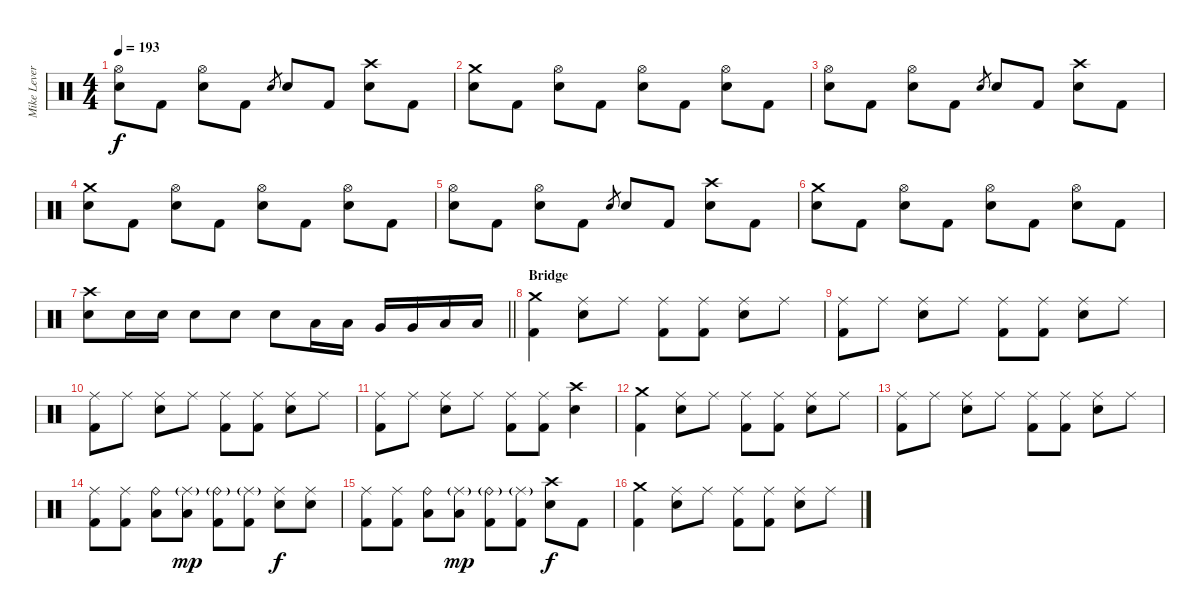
\track ("Mike Leverence - Drums" "Mike Lever") {instrument percussion}
\staff {score}
\articulation defaults
\ts (4 4)
\tempo 193
\clef neutral
\ks c
("Hi-Hat (open)" "Electric Snare (hit)").8{dy f} "Kick (hit) 2".8 ("Hi-Hat (open)" "Electric Snare (hit)").8 "Kick (hit) 2".8 "Electric Snare (hit)".8{gr} "Electric Snare (hit)".8 "Kick (hit) 2".8 ("Crash high (hit)" "Electric Snare (hit)").8 "Kick (hit) 2".8 |
("Crash medium (hit)" "Electric Snare (hit)").8 "Kick (hit) 2".8 ("Hi-Hat (open)" "Electric Snare (hit)").8 "Kick (hit) 2".8 ("Hi-Hat (open)" "Electric Snare (hit)").8 "Kick (hit) 2".8 ("Hi-Hat (open)" "Electric Snare (hit)").8 "Kick (hit) 2".8 |
("Hi-Hat (open)" "Electric Snare (hit)").8 "Kick (hit) 2".8 ("Hi-Hat (open)" "Electric Snare (hit)").8 "Kick (hit) 2".8 "Electric Snare (hit)".8{gr} "Electric Snare (hit)".8 "Kick (hit) 2".8 ("Crash high (hit)" "Electric Snare (hit)").8 "Kick (hit) 2".8 |
("Crash medium (hit)" "Electric Snare (hit)").8 "Kick (hit) 2".8 ("Hi-Hat (open)" "Electric Snare (hit)").8 "Kick (hit) 2".8 ("Hi-Hat (open)" "Electric Snare (hit)").8 "Kick (hit) 2".8 ("Hi-Hat (open)" "Electric Snare (hit)").8 "Kick (hit) 2".8 |
("Hi-Hat (open)" "Electric Snare (hit)").8 "Kick (hit) 2".8 ("Hi-Hat (open)" "Electric Snare (hit)").8 "Kick (hit) 2".8 "Electric Snare (hit)".8{gr} "Electric Snare (hit)".8 "Kick (hit) 2".8 ("Crash high (hit)" "Electric Snare (hit)").8 "Kick (hit) 2".8 |
("Crash medium (hit)" "Electric Snare (hit)").8 "Kick (hit) 2".8 ("Hi-Hat (open)" "Electric Snare (hit)").8 "Kick (hit) 2".8 ("Hi-Hat (open)" "Electric Snare (hit)").8 "Kick (hit) 2".8 ("Hi-Hat (open)" "Electric Snare (hit)").8 "Kick (hit) 2".8 |
\barLineRight lightlight
("Crash high (hit)" "Electric Snare (hit)").8 "Electric Snare (hit)".16 "Electric Snare (hit)".16 "Electric Snare (hit)".8 "Electric Snare (hit)".8 "Electric Snare (hit)".8 "Low Tom (hit)".16 "Low Tom (hit)".16 "Very Low Tom (hit)".16 "Very Low Tom (hit)".16 "Low Floor Tom (hit)".16 "Low Floor Tom (hit)".16 |
\section ("" "Bridge")
("Crash medium (hit)" "Kick (hit) 2").4 ("Ride (middle)" "Electric Snare (hit)").8 "Ride (middle)".8 ("Ride (middle)" "Kick (hit) 2").8 ("Ride (middle)" "Kick (hit) 2").8 ("Ride (middle)" "Electric Snare (hit)").8 "Ride (middle)".8 |
("Ride (middle)" "Kick (hit) 2").8 "Ride (middle)".8 ("Ride (middle)" "Electric Snare (hit)").8 "Ride (middle)".8 ("Ride (middle)" "Kick (hit) 2").8 ("Ride (middle)" "Kick (hit) 2").8 ("Ride (middle)" "Electric Snare (hit)").8 "Ride (middle)".8 |
("Ride (middle)" "Kick (hit) 2").8 "Ride (middle)".8 ("Ride (middle)" "Electric Snare (hit)").8 "Ride (middle)".8 ("Ride (middle)" "Kick (hit) 2").8 ("Ride (middle)" "Kick (hit) 2").8 ("Ride (middle)" "Electric Snare (hit)").8 "Ride (middle)".8 |
("Ride (middle)" "Kick (hit) 2").8 "Ride (middle)".8 ("Ride (middle)" "Electric Snare (hit)").8 "Ride (middle)".8 ("Ride (middle)" "Kick (hit) 2").8 ("Ride (middle)" "Kick (hit) 2").8 ("Crash high (hit)" "Electric Snare (hit)").4 |
("Crash medium (hit)" "Kick (hit) 2").4 ("Ride (middle)" "Electric Snare (hit)").8 "Ride (middle)".8 ("Ride (middle)" "Kick (hit) 2").8 ("Ride (middle)" "Kick (hit) 2").8 ("Ride (middle)" "Electric Snare (hit)").8 "Ride (middle)".8 |
("Ride (middle)" "Kick (hit) 2").8 "Ride (middle)".8 ("Ride (middle)" "Electric Snare (hit)").8 "Ride (middle)".8 ("Ride (middle)" "Kick (hit) 2").8 ("Ride (middle)" "Kick (hit) 2").8 ("Ride (middle)" "Electric Snare (hit)").8 "Ride (middle)".8 |
("Ride (middle)" "Kick (hit) 2").8 ("Ride (middle)" "Kick (hit) 2").8 ("Ride (bell)" "Low Tom (hit)").8 ("Ride (middle)"{g} "Low Tom (hit)").8{dy mp} ("Ride (bell)"{g} "Kick (hit) 2").8 ("Ride (middle)"{g} "Kick (hit) 2").8 ("Ride (middle)" "Electric Snare (hit)").8{dy f} ("Ride (middle)" "Electric Snare (hit)").8 |
("Ride (middle)" "Kick (hit) 2").8 ("Ride (middle)" "Kick (hit) 2").8 ("Ride (bell)" "Low Tom (hit)").8 ("Ride (middle)"{g} "Low Tom (hit)").8{dy mp} ("Ride (bell)"{g} "Kick (hit) 2").8 ("Ride (middle)"{g} "Kick (hit) 2").8 ("Crash high (hit)" "Electric Snare (hit)").8{dy f} "Kick (hit) 2".8 |
("Crash medium (hit)" "Kick (hit) 2").4 ("Ride (middle)" "Electric Snare (hit)").8 "Ride (middle)".8 ("Ride (middle)" "Kick (hit) 2").8 ("Ride (middle)" "Kick (hit) 2").8 ("Ride (middle)" "Electric Snare (hit)").8 "Ride (middle)".8
